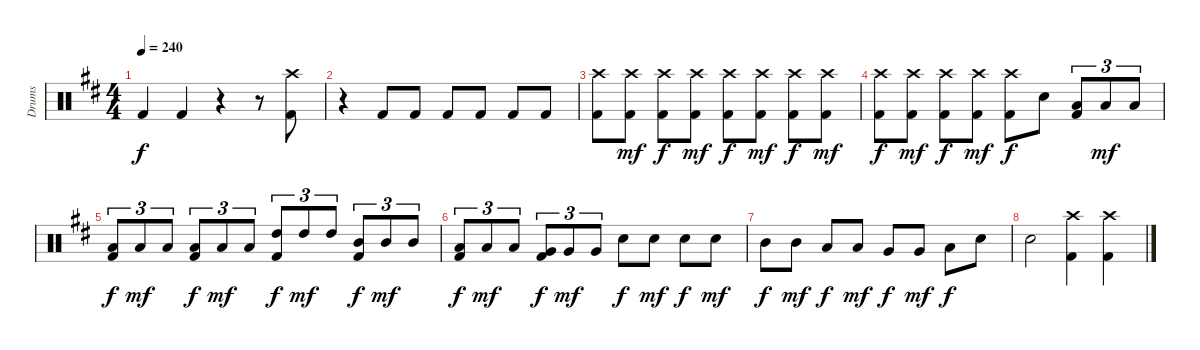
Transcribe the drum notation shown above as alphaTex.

\track ("Drums" "Drums") {instrument percussion}
\staff {score}
\articulation defaults
\ts (4 4)
\tempo 240
\clef neutral
\ks d "Kick (hit) 2".4{dy f} "Kick (hit) 2".4
r.4 r.8 ("Crash high (hit)" "Kick (hit) 2").8 |
r.4 "Kick (hit) 2".8 "Kick (hit) 2".8 "Kick (hit) 2".8 "Kick (hit) 2".8 "Kick (hit) 2".8 "Kick (hit) 2".8 |
("Crash high (hit)" "Kick (hit) 2").8 ("Crash high (hit)" "Kick (hit) 2").8{dy mf} ("Crash high (hit)" "Kick (hit) 2").8{dy f} ("Crash high (hit)" "Kick (hit) 2").8{dy mf} ("Crash high (hit)" "Kick (hit) 2").8{dy f} ("Crash high (hit)" "Kick (hit) 2").8{dy mf} ("Crash high (hit)" "Kick (hit) 2").8{dy f} ("Crash high (hit)" "Kick (hit) 2").8{dy mf} |
("Crash high (hit)" "Kick (hit) 2").8{dy f} ("Crash high (hit)" "Kick (hit) 2").8{dy mf} ("Crash high (hit)" "Kick (hit) 2").8{dy f} ("Crash high (hit)" "Kick (hit) 2").8{dy mf} ("Crash high (hit)" "Kick (hit) 2").8{dy f} "Electric Snare (hit)".8 ("Low Tom (hit)" "Kick (hit) 2").8{tu (3 2)} "Low Tom (hit)".8{tu (3 2) dy mf} "Low Tom (hit)".8{tu (3 2)} |
("Low Tom (hit)" "Kick (hit) 2").8{tu (3 2) dy f} "Low Tom (hit)".8{tu (3 2) dy mf} "Low Tom (hit)".8{tu (3 2)} ("Low Tom (hit)" "Kick (hit) 2").8{tu (3 2) dy f} "Low Tom (hit)".8{tu (3 2) dy mf} "Low Tom (hit)".8{tu (3 2)} ("High Tom (hit)" "Kick (hit) 2").8{tu (3 2) dy f} "High Tom (hit)".8{tu (3 2) dy mf} "High Tom (hit)".8{tu (3 2)} ("Mid Tom (hit)" "Kick (hit) 2").8{tu (3 2) dy f} "Mid Tom (hit)".8{tu (3 2) dy mf} "Mid Tom (hit)".8{tu (3 2)} |
("Low Tom (hit)" "Kick (hit) 2").8{tu (3 2) dy f} "Low Tom (hit)".8{tu (3 2) dy mf} "Low Tom (hit)".8{tu (3 2)} ("Very Low Tom (hit)" "Kick (hit) 2").8{tu (3 2) dy f} "Very Low Tom (hit)".8{tu (3 2) dy mf} "Very Low Tom (hit)".8{tu (3 2)} "Electric Snare (hit)".8{dy f} "Electric Snare (hit)".8{dy mf} "Electric Snare (hit)".8{dy f} "Electric Snare (hit)".8{dy mf} |
"Mid Tom (hit)".8{dy f} "Mid Tom (hit)".8{dy mf} "Low Tom (hit)".8{dy f} "Low Tom (hit)".8{dy mf} "Very Low Tom (hit)".8{dy f} "Very Low Tom (hit)".8{dy mf} "Low Tom (hit)".8{dy f} "Electric Snare (hit)".8 |
"Electric Snare (hit)".2 ("Crash high (hit)" "Kick (hit) 2").4 ("Crash high (hit)" "Kick (hit) 2").4
